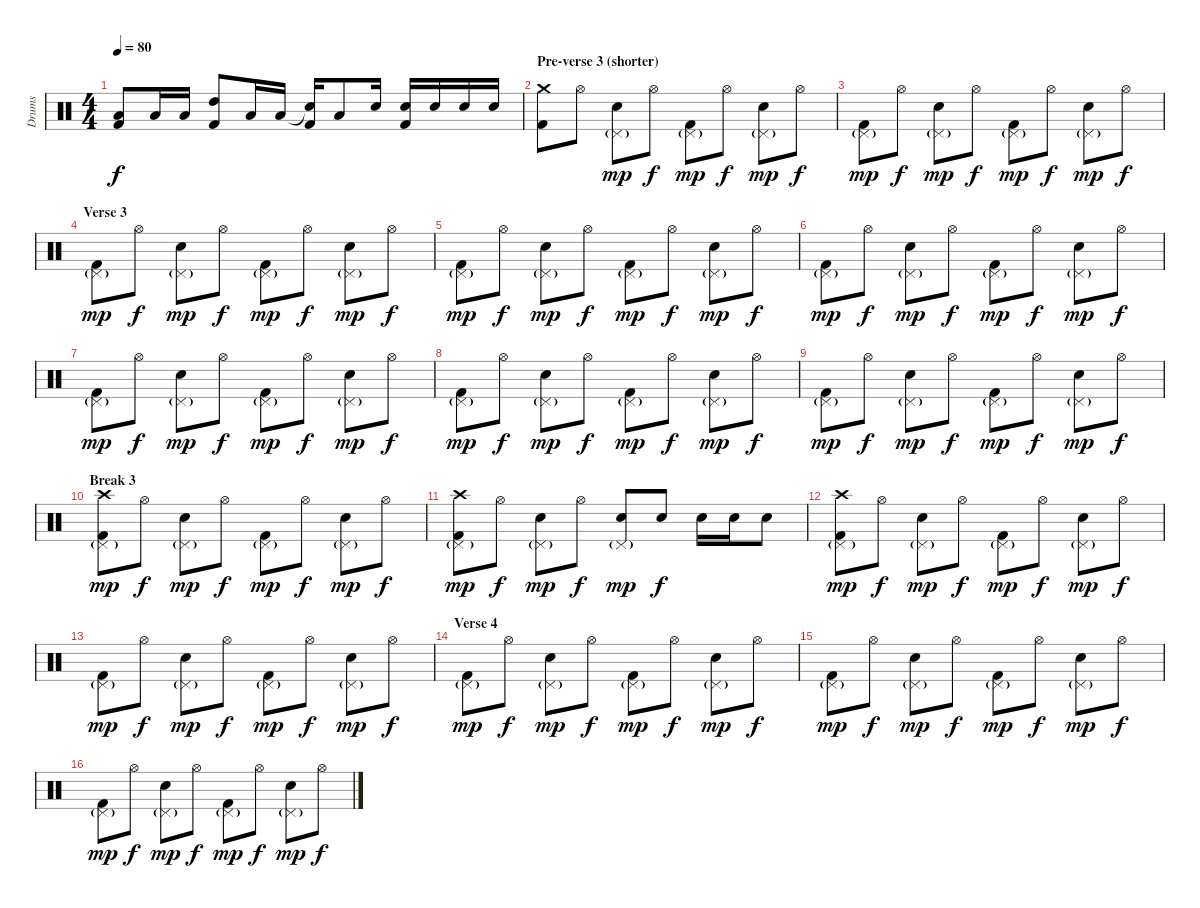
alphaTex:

\track ("Drums" "Drums") {instrument percussion}
\staff {score}
\articulation defaults
\ts (4 4)
\tempo 80
\clef neutral
\ks c
("Low Tom (hit)" "Kick (hit) 2").8{dy f} "Low Tom (hit)".16 "Low Tom (hit)".16 ("High Tom (hit)" "Kick (hit) 2").8 "Low Tom (hit)".16 "Low Tom (hit)".16 ("Snare (hit)"{t} "Kick (hit) 2").16 "Low Tom (hit)".8 "Electric Snare (hit)".16 ("Electric Snare (hit)" "Kick (hit) 2").16 "Electric Snare (hit)".16 "Electric Snare (hit)".16 "Electric Snare (hit)".16 |
\section ("" "Pre-verse 3 (shorter)")
("Crash medium (hit)" "Kick (hit) 2").8 "Hi-Hat (open)".8 ("Pedal Hi-Hat (hit)"{g} "Electric Snare (hit)").8{dy mp} "Hi-Hat (open)".8{dy f} ("Pedal Hi-Hat (hit)"{g} "Kick (hit) 2").8{dy mp} "Hi-Hat (open)".8{dy f} ("Pedal Hi-Hat (hit)"{g} "Electric Snare (hit)").8{dy mp} "Hi-Hat (open)".8{dy f} |
("Pedal Hi-Hat (hit)"{g} "Kick (hit) 2").8{dy mp} "Hi-Hat (open)".8{dy f} ("Pedal Hi-Hat (hit)"{g} "Electric Snare (hit)").8{dy mp} "Hi-Hat (open)".8{dy f} ("Pedal Hi-Hat (hit)"{g} "Kick (hit) 2").8{dy mp} "Hi-Hat (open)".8{dy f} ("Pedal Hi-Hat (hit)"{g} "Electric Snare (hit)").8{dy mp} "Hi-Hat (open)".8{dy f} |
\section ("" "Verse 3")
("Pedal Hi-Hat (hit)"{g} "Kick (hit) 2").8{dy mp} "Hi-Hat (open)".8{dy f} ("Pedal Hi-Hat (hit)"{g} "Electric Snare (hit)").8{dy mp} "Hi-Hat (open)".8{dy f} ("Pedal Hi-Hat (hit)"{g} "Kick (hit) 2").8{dy mp} "Hi-Hat (open)".8{dy f} ("Pedal Hi-Hat (hit)"{g} "Electric Snare (hit)").8{dy mp} "Hi-Hat (open)".8{dy f} |
("Pedal Hi-Hat (hit)"{g} "Kick (hit) 2").8{dy mp} "Hi-Hat (open)".8{dy f} ("Pedal Hi-Hat (hit)"{g} "Electric Snare (hit)").8{dy mp} "Hi-Hat (open)".8{dy f} ("Pedal Hi-Hat (hit)"{g} "Kick (hit) 2").8{dy mp} "Hi-Hat (open)".8{dy f} ("Pedal Hi-Hat (hit)"{g} "Electric Snare (hit)").8{dy mp} "Hi-Hat (open)".8{dy f} |
("Pedal Hi-Hat (hit)"{g} "Kick (hit) 2").8{dy mp} "Hi-Hat (open)".8{dy f} ("Pedal Hi-Hat (hit)"{g} "Electric Snare (hit)").8{dy mp} "Hi-Hat (open)".8{dy f} ("Pedal Hi-Hat (hit)"{g} "Kick (hit) 2").8{dy mp} "Hi-Hat (open)".8{dy f} ("Pedal Hi-Hat (hit)"{g} "Electric Snare (hit)").8{dy mp} "Hi-Hat (open)".8{dy f} |
("Pedal Hi-Hat (hit)"{g} "Kick (hit) 2").8{dy mp} "Hi-Hat (open)".8{dy f} ("Pedal Hi-Hat (hit)"{g} "Electric Snare (hit)").8{dy mp} "Hi-Hat (open)".8{dy f} ("Pedal Hi-Hat (hit)"{g} "Kick (hit) 2").8{dy mp} "Hi-Hat (open)".8{dy f} ("Pedal Hi-Hat (hit)"{g} "Electric Snare (hit)").8{dy mp} "Hi-Hat (open)".8{dy f} |
("Pedal Hi-Hat (hit)"{g} "Kick (hit) 2").8{dy mp} "Hi-Hat (open)".8{dy f} ("Pedal Hi-Hat (hit)"{g} "Electric Snare (hit)").8{dy mp} "Hi-Hat (open)".8{dy f} ("Pedal Hi-Hat (hit)"{g} "Kick (hit) 2").8{dy mp} "Hi-Hat (open)".8{dy f} ("Pedal Hi-Hat (hit)"{g} "Electric Snare (hit)").8{dy mp} "Hi-Hat (open)".8{dy f} |
("Pedal Hi-Hat (hit)"{g} "Kick (hit) 2").8{dy mp} "Hi-Hat (open)".8{dy f} ("Pedal Hi-Hat (hit)"{g} "Electric Snare (hit)").8{dy mp} "Hi-Hat (open)".8{dy f} ("Pedal Hi-Hat (hit)"{g} "Kick (hit) 2").8{dy mp} "Hi-Hat (open)".8{dy f} ("Pedal Hi-Hat (hit)"{g} "Electric Snare (hit)").8{dy mp} "Hi-Hat (open)".8{dy f} |
\section ("" "Break 3")
("Pedal Hi-Hat (hit)"{g} "Crash high (hit)" "Kick (hit) 2").8{dy mp} "Hi-Hat (open)".8{dy f} ("Pedal Hi-Hat (hit)"{g} "Electric Snare (hit)").8{dy mp} "Hi-Hat (open)".8{dy f} ("Pedal Hi-Hat (hit)"{g} "Kick (hit) 2").8{dy mp} "Hi-Hat (open)".8{dy f} ("Pedal Hi-Hat (hit)"{g} "Electric Snare (hit)").8{dy mp} "Hi-Hat (open)".8{dy f} |
("Pedal Hi-Hat (hit)"{g} "Crash high (hit)" "Kick (hit) 2").8{dy mp} "Hi-Hat (open)".8{dy f} ("Pedal Hi-Hat (hit)"{g} "Electric Snare (hit)").8{dy mp} "Hi-Hat (open)".8{dy f} ("Pedal Hi-Hat (hit)"{g} "Electric Snare (hit)").8{dy mp} "Electric Snare (hit)".8{dy f} "Electric Snare (hit)".16 "Electric Snare (hit)".16 "Electric Snare (hit)".8 |
("Pedal Hi-Hat (hit)"{g} "Crash high (hit)" "Kick (hit) 2").8{dy mp} "Hi-Hat (open)".8{dy f} ("Pedal Hi-Hat (hit)"{g} "Electric Snare (hit)").8{dy mp} "Hi-Hat (open)".8{dy f} ("Pedal Hi-Hat (hit)"{g} "Kick (hit) 2").8{dy mp} "Hi-Hat (open)".8{dy f} ("Pedal Hi-Hat (hit)"{g} "Electric Snare (hit)").8{dy mp} "Hi-Hat (open)".8{dy f} |
("Pedal Hi-Hat (hit)"{g} "Kick (hit) 2").8{dy mp} "Hi-Hat (open)".8{dy f} ("Pedal Hi-Hat (hit)"{g} "Electric Snare (hit)").8{dy mp} "Hi-Hat (open)".8{dy f} ("Pedal Hi-Hat (hit)"{g} "Kick (hit) 2").8{dy mp} "Hi-Hat (open)".8{dy f} ("Pedal Hi-Hat (hit)"{g} "Electric Snare (hit)").8{dy mp} "Hi-Hat (open)".8{dy f} |
\section ("" "Verse 4")
("Pedal Hi-Hat (hit)"{g} "Kick (hit) 2").8{dy mp} "Hi-Hat (open)".8{dy f} ("Pedal Hi-Hat (hit)"{g} "Electric Snare (hit)").8{dy mp} "Hi-Hat (open)".8{dy f} ("Pedal Hi-Hat (hit)"{g} "Kick (hit) 2").8{dy mp} "Hi-Hat (open)".8{dy f} ("Pedal Hi-Hat (hit)"{g} "Electric Snare (hit)").8{dy mp} "Hi-Hat (open)".8{dy f} |
("Pedal Hi-Hat (hit)"{g} "Kick (hit) 2").8{dy mp} "Hi-Hat (open)".8{dy f} ("Pedal Hi-Hat (hit)"{g} "Electric Snare (hit)").8{dy mp} "Hi-Hat (open)".8{dy f} ("Pedal Hi-Hat (hit)"{g} "Kick (hit) 2").8{dy mp} "Hi-Hat (open)".8{dy f} ("Pedal Hi-Hat (hit)"{g} "Electric Snare (hit)").8{dy mp} "Hi-Hat (open)".8{dy f} |
("Pedal Hi-Hat (hit)"{g} "Kick (hit) 2").8{dy mp} "Hi-Hat (open)".8{dy f} ("Pedal Hi-Hat (hit)"{g} "Electric Snare (hit)").8{dy mp} "Hi-Hat (open)".8{dy f} ("Pedal Hi-Hat (hit)"{g} "Kick (hit) 2").8{dy mp} "Hi-Hat (open)".8{dy f} ("Pedal Hi-Hat (hit)"{g} "Electric Snare (hit)").8{dy mp} "Hi-Hat (open)".8{dy f}
